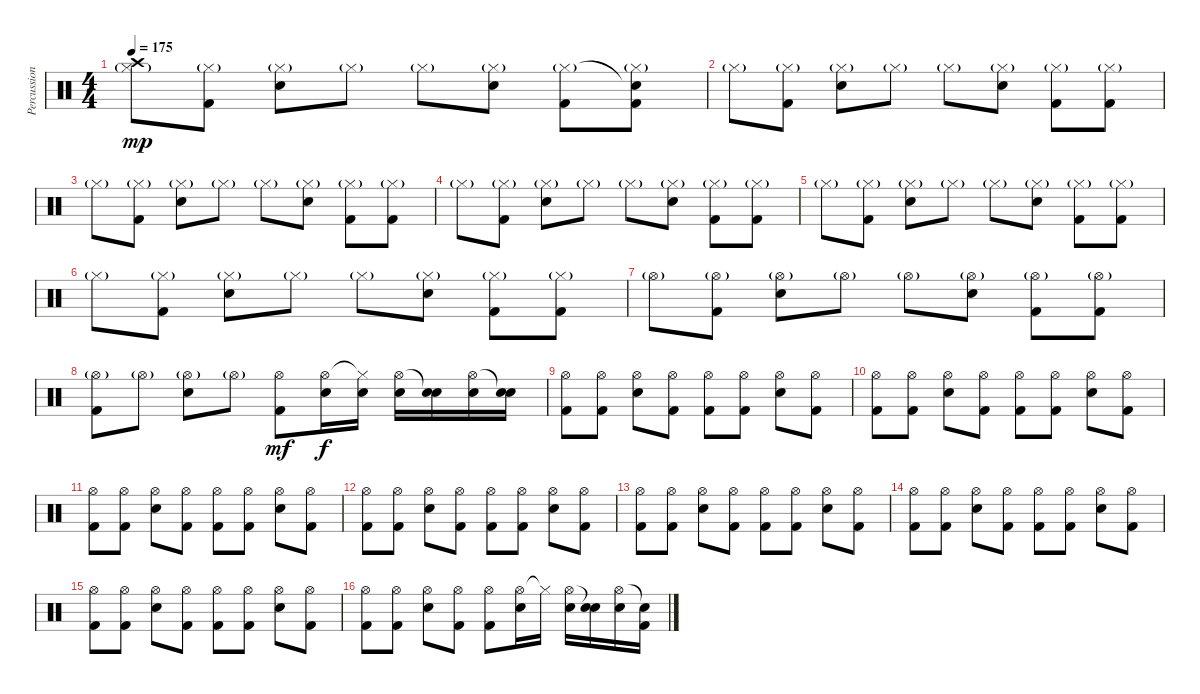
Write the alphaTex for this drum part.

\track ("Percussion" "Percussion") {instrument percussion}
\staff {score}
\articulation defaults
\ts (4 4)
\tempo 175
\clef neutral
\ks c
("Crash high (hit)" "Hi-Hat (closed)"{g}).8{dy mp} ("Hi-Hat (closed)"{g} "Kick (hit) 2").8 ("Hi-Hat (closed)"{g} "Snare (hit) 2").8 "Hi-Hat (closed)"{g}.8 "Hi-Hat (closed)"{g}.8 ("Hi-Hat (closed)"{g} "Snare (hit) 2").8 ("Hi-Hat (closed)"{g} "Kick (hit) 2").8 ("Snare (hit)"{t} "Hi-Hat (closed)"{g} "Kick (hit) 2").8 |
"Hi-Hat (closed)"{g}.8 ("Hi-Hat (closed)"{g} "Kick (hit) 2").8 ("Hi-Hat (closed)"{g} "Snare (hit) 2").8 "Hi-Hat (closed)"{g}.8 "Hi-Hat (closed)"{g}.8 ("Hi-Hat (closed)"{g} "Snare (hit) 2").8 ("Hi-Hat (closed)"{g} "Kick (hit) 2").8 ("Hi-Hat (closed)"{g} "Kick (hit) 2").8 |
"Hi-Hat (closed)"{g}.8 ("Hi-Hat (closed)"{g} "Kick (hit) 2").8 ("Hi-Hat (closed)"{g} "Snare (hit) 2").8 "Hi-Hat (closed)"{g}.8 "Hi-Hat (closed)"{g}.8 ("Hi-Hat (closed)"{g} "Snare (hit) 2").8 ("Hi-Hat (closed)"{g} "Kick (hit) 2").8 ("Hi-Hat (closed)"{g} "Kick (hit) 2").8 |
"Hi-Hat (closed)"{g}.8 ("Hi-Hat (closed)"{g} "Kick (hit) 2").8 ("Hi-Hat (closed)"{g} "Snare (hit) 2").8 "Hi-Hat (closed)"{g}.8 "Hi-Hat (closed)"{g}.8 ("Hi-Hat (closed)"{g} "Snare (hit) 2").8 ("Hi-Hat (closed)"{g} "Kick (hit) 2").8 ("Hi-Hat (closed)"{g} "Kick (hit) 2").8 |
"Hi-Hat (closed)"{g}.8 ("Hi-Hat (closed)"{g} "Kick (hit) 2").8 ("Hi-Hat (closed)"{g} "Snare (hit) 2").8 "Hi-Hat (closed)"{g}.8 "Hi-Hat (closed)"{g}.8 ("Hi-Hat (closed)"{g} "Snare (hit) 2").8 ("Hi-Hat (closed)"{g} "Kick (hit) 2").8 ("Hi-Hat (closed)"{g} "Kick (hit) 2").8 |
"Hi-Hat (closed)"{g}.8 ("Hi-Hat (closed)"{g} "Kick (hit) 2").8 ("Hi-Hat (closed)"{g} "Snare (hit) 2").8 "Hi-Hat (closed)"{g}.8 "Hi-Hat (closed)"{g}.8 ("Hi-Hat (closed)"{g} "Snare (hit) 2").8 ("Hi-Hat (closed)"{g} "Kick (hit) 2").8 ("Hi-Hat (closed)"{g} "Kick (hit) 2").8 |
"Hi-Hat (open)"{g}.8 ("Hi-Hat (open)"{g} "Kick (hit) 2").8 ("Hi-Hat (open)"{g} "Snare (hit) 2").8 "Hi-Hat (open)"{g}.8 "Hi-Hat (open)"{g}.8 ("Hi-Hat (open)"{g} "Snare (hit) 2").8 ("Hi-Hat (open)"{g} "Kick (hit) 2").8 ("Hi-Hat (open)"{g} "Kick (hit) 2").8 |
("Hi-Hat (open)"{g} "Kick (hit) 2").8 "Hi-Hat (open)"{g}.8 ("Hi-Hat (open)"{g} "Snare (hit) 2").8 "Hi-Hat (open)"{g}.8 ("Hi-Hat (open)" "Kick (hit) 2").8{dy mf} ("Hi-Hat (open)" "Snare (hit) 2").16{dy f} ("Hi-Hat (closed)"{t} "Snare (hit) 2").16 ("Hi-Hat (open)" "Snare (hit) 2").16 ("Snare (hit)"{t} "Snare (hit) 2").16 ("Hi-Hat (open)" "Snare (hit) 2").16 ("Snare (hit)"{t} "Snare (hit) 2").16 |
("Hi-Hat (open)" "Kick (hit) 2").8 ("Hi-Hat (open)" "Kick (hit) 2").8 ("Hi-Hat (open)" "Snare (hit) 2").8 ("Hi-Hat (open)" "Kick (hit) 2").8 ("Hi-Hat (open)" "Kick (hit) 2").8 ("Hi-Hat (open)" "Kick (hit) 2").8 ("Hi-Hat (open)" "Snare (hit) 2").8 ("Hi-Hat (open)" "Kick (hit) 2").8 |
("Hi-Hat (open)" "Kick (hit) 2").8 ("Hi-Hat (open)" "Kick (hit) 2").8 ("Hi-Hat (open)" "Snare (hit) 2").8 ("Hi-Hat (open)" "Kick (hit) 2").8 ("Hi-Hat (open)" "Kick (hit) 2").8 ("Hi-Hat (open)" "Kick (hit) 2").8 ("Hi-Hat (open)" "Snare (hit) 2").8 ("Hi-Hat (open)" "Kick (hit) 2").8 |
("Hi-Hat (open)" "Kick (hit) 2").8 ("Hi-Hat (open)" "Kick (hit) 2").8 ("Hi-Hat (open)" "Snare (hit) 2").8 ("Hi-Hat (open)" "Kick (hit) 2").8 ("Hi-Hat (open)" "Kick (hit) 2").8 ("Hi-Hat (open)" "Kick (hit) 2").8 ("Hi-Hat (open)" "Snare (hit) 2").8 ("Hi-Hat (open)" "Kick (hit) 2").8 |
("Hi-Hat (open)" "Kick (hit) 2").8 ("Hi-Hat (open)" "Kick (hit) 2").8 ("Hi-Hat (open)" "Snare (hit) 2").8 ("Hi-Hat (open)" "Kick (hit) 2").8 ("Hi-Hat (open)" "Kick (hit) 2").8 ("Hi-Hat (open)" "Kick (hit) 2").8 ("Hi-Hat (open)" "Snare (hit) 2").8 ("Hi-Hat (open)" "Kick (hit) 2").8 |
("Hi-Hat (open)" "Kick (hit) 2").8 ("Hi-Hat (open)" "Kick (hit) 2").8 ("Hi-Hat (open)" "Snare (hit) 2").8 ("Hi-Hat (open)" "Kick (hit) 2").8 ("Hi-Hat (open)" "Kick (hit) 2").8 ("Hi-Hat (open)" "Kick (hit) 2").8 ("Hi-Hat (open)" "Snare (hit) 2").8 ("Hi-Hat (open)" "Kick (hit) 2").8 |
("Hi-Hat (open)" "Kick (hit) 2").8 ("Hi-Hat (open)" "Kick (hit) 2").8 ("Hi-Hat (open)" "Snare (hit) 2").8 ("Hi-Hat (open)" "Kick (hit) 2").8 ("Hi-Hat (open)" "Kick (hit) 2").8 ("Hi-Hat (open)" "Kick (hit) 2").8 ("Hi-Hat (open)" "Snare (hit) 2").8 ("Hi-Hat (open)" "Kick (hit) 2").8 |
("Hi-Hat (open)" "Kick (hit) 2").8 ("Hi-Hat (open)" "Kick (hit) 2").8 ("Hi-Hat (open)" "Snare (hit) 2").8 ("Hi-Hat (open)" "Kick (hit) 2").8 ("Hi-Hat (open)" "Kick (hit) 2").8 ("Hi-Hat (open)" "Kick (hit) 2").8 ("Hi-Hat (open)" "Snare (hit) 2").8 ("Hi-Hat (open)" "Kick (hit) 2").8 |
("Hi-Hat (open)" "Kick (hit) 2").8 ("Hi-Hat (open)" "Kick (hit) 2").8 ("Hi-Hat (open)" "Snare (hit) 2").8 ("Hi-Hat (open)" "Kick (hit) 2").8 ("Hi-Hat (open)" "Kick (hit) 2").8 ("Hi-Hat (open)" "Snare (hit) 2").16 "Hi-Hat (closed)"{t}.16 ("Hi-Hat (open)" "Snare (hit) 2").16 ("Snare (hit)"{t} "Snare (hit) 2").16 ("Hi-Hat (open)" "Snare (hit) 2").16 ("Snare (hit)"{t} "Kick (hit) 2").16
